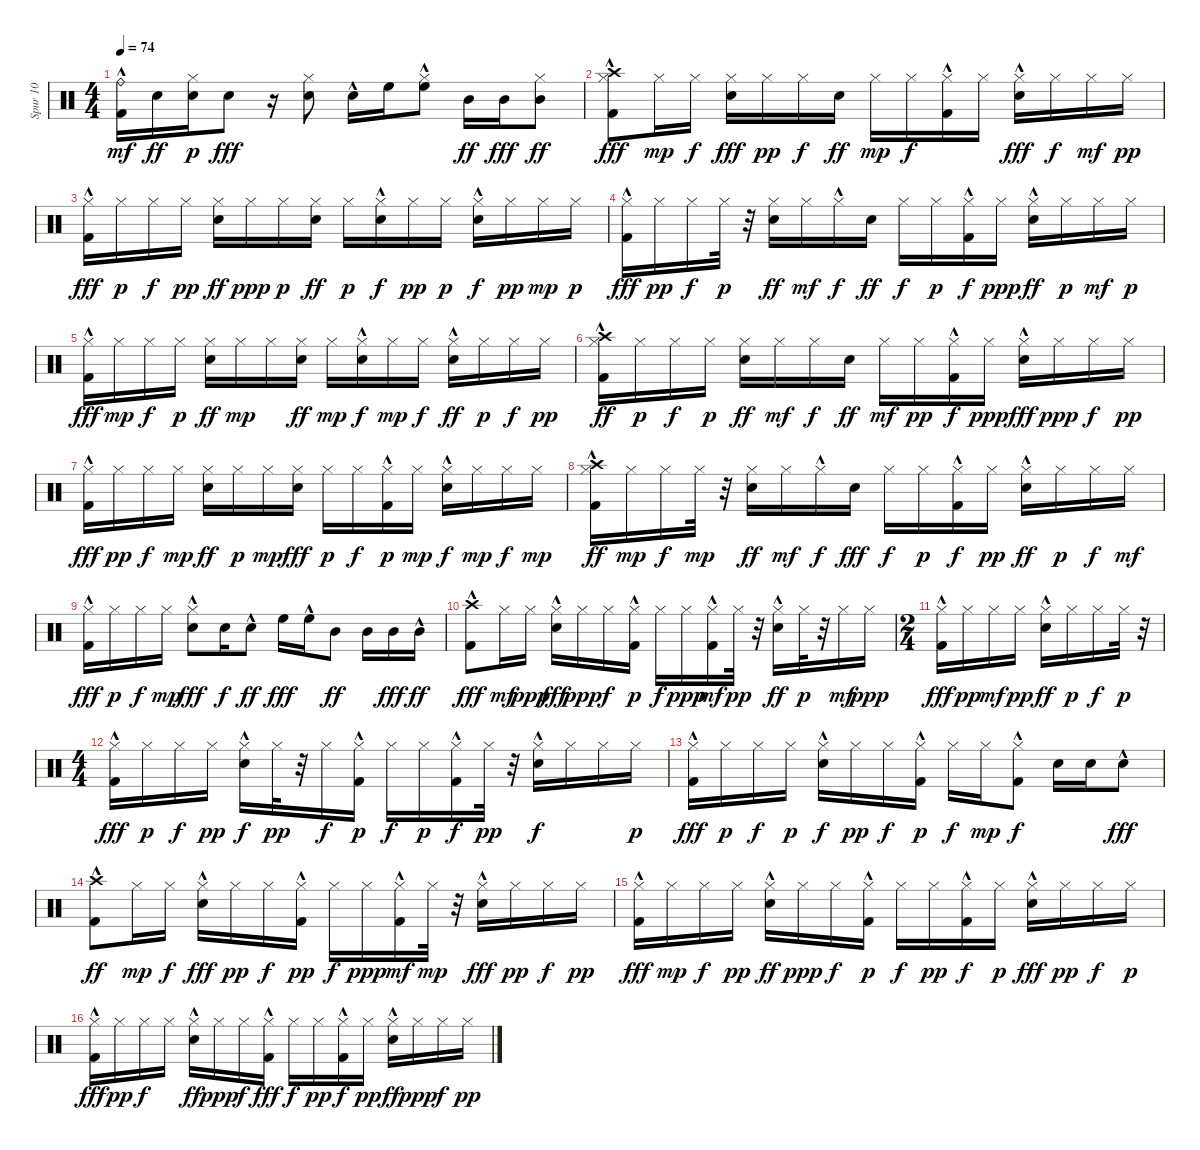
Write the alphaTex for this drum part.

\track ("Spur 10" "Spur 10") {instrument percussion}
\staff {score}
\articulation defaults
\ts (4 4)
\tempo 74
\clef neutral
\ks c
("Kick (hit) 2"{hac} "Ride (bell)").16{dy mf} "Snare (hit) 2".16{dy ff} ("Snare (hit) 2" "Hi-Hat (closed)").16{dy p} "Snare (hit) 2".8{dy fff} r.16 ("Hi-Hat (closed)" "Snare (hit) 2").8 "Snare (hit) 2"{hac}.16 "High Floor Tom (hit)".16 ("Hi-Hat (closed)" "High Floor Tom (hit)"{hac}).8 "Mid Tom (hit)".16{dy ff} "Mid Tom (hit)".16{dy fff} ("Hi-Hat (closed)" "Mid Tom (hit)").8{dy ff} |
("Kick (hit) 2"{hac} "Hi-Hat (closed)" "Crash high (hit)").8{dy fff} "Hi-Hat (closed)".16{dy mp} "Hi-Hat (closed)".16{dy f} ("Hi-Hat (closed)" "Snare (hit) 2").16{dy fff} "Hi-Hat (closed)".16{dy pp} "Hi-Hat (closed)".16{dy f} "Snare (hit) 2".16{dy ff} "Hi-Hat (closed)".16{dy mp} "Hi-Hat (closed)".16{dy f} ("Hi-Hat (closed)" "Kick (hit) 2"{hac}).16 "Hi-Hat (closed)".16 ("Hi-Hat (closed)" "Snare (hit) 2"{hac}).16{dy fff} "Hi-Hat (closed)".16{dy f} "Hi-Hat (closed)".16{dy mf} "Hi-Hat (closed)".16{dy pp} |
("Kick (hit) 2"{hac} "Hi-Hat (closed)").16{dy fff} "Hi-Hat (closed)".16{dy p} "Hi-Hat (closed)".16{dy f} "Hi-Hat (closed)".16{dy pp} ("Hi-Hat (closed)" "Snare (hit) 2").16{dy ff} "Hi-Hat (closed)".16{dy ppp} "Hi-Hat (closed)".16{dy p} ("Hi-Hat (closed)" "Snare (hit) 2").16{dy ff} "Hi-Hat (closed)".16{dy p} ("Hi-Hat (closed)" "Snare (hit) 2"{hac}).16{dy f} "Hi-Hat (closed)".16{dy pp} "Hi-Hat (closed)".16{dy p} ("Hi-Hat (closed)" "Snare (hit) 2"{hac}).16{dy f} "Hi-Hat (closed)".16{dy pp} "Hi-Hat (closed)".16{dy mp} "Hi-Hat (closed)".16{dy p} |
("Hi-Hat (closed)" "Kick (hit) 2"{hac}).16{dy fff} "Hi-Hat (closed)".16{dy pp} "Hi-Hat (closed)".16{dy f} "Hi-Hat (closed)".32{dy p} r.32 ("Hi-Hat (closed)" "Snare (hit) 2").16{dy ff} "Hi-Hat (closed)".16{dy mf} "Hi-Hat (closed)"{hac}.16{dy f} "Snare (hit) 2".16{dy ff} "Hi-Hat (closed)".16{dy f} "Hi-Hat (closed)".16{dy p} ("Hi-Hat (closed)" "Kick (hit) 2"{hac}).16{dy f} "Hi-Hat (closed)".16{dy ppp} ("Hi-Hat (closed)" "Snare (hit) 2"{hac}).16{dy ff} "Hi-Hat (closed)".16{dy p} "Hi-Hat (closed)".16{dy mf} "Hi-Hat (closed)".16{dy p} |
("Hi-Hat (closed)" "Kick (hit) 2"{hac}).16{dy fff} "Hi-Hat (closed)".16{dy mp} "Hi-Hat (closed)".16{dy f} "Hi-Hat (closed)".16{dy p} ("Hi-Hat (closed)" "Snare (hit) 2").16{dy ff} "Hi-Hat (closed)".16{dy mp} "Hi-Hat (closed)".16 ("Hi-Hat (closed)" "Snare (hit) 2").16{dy ff} "Hi-Hat (closed)".16{dy mp} ("Hi-Hat (closed)" "Snare (hit) 2"{hac}).16{dy f} "Hi-Hat (closed)".16{dy mp} "Hi-Hat (closed)".16{dy f} ("Hi-Hat (closed)" "Snare (hit) 2"{hac}).16{dy ff} "Hi-Hat (closed)".16{dy p} "Hi-Hat (closed)".16{dy f} "Hi-Hat (closed)".16{dy pp} |
("Kick (hit) 2"{hac} "Hi-Hat (closed)" "Crash high (hit)").16{dy ff} "Hi-Hat (closed)".16{dy p} "Hi-Hat (closed)".16{dy f} "Hi-Hat (closed)".16{dy p} ("Hi-Hat (closed)" "Snare (hit) 2").16{dy ff} "Hi-Hat (closed)".16{dy mf} "Hi-Hat (closed)".16{dy f} "Snare (hit) 2".16{dy ff} "Hi-Hat (closed)".16{dy mf} "Hi-Hat (closed)".16{dy pp} ("Hi-Hat (closed)" "Kick (hit) 2"{hac}).16{dy f} "Hi-Hat (closed)".16{dy ppp} ("Hi-Hat (closed)" "Snare (hit) 2"{hac}).16{dy fff} "Hi-Hat (closed)".16{dy ppp} "Hi-Hat (closed)".16{dy f} "Hi-Hat (closed)".16{dy pp} |
("Hi-Hat (closed)" "Kick (hit) 2"{hac}).16{dy fff} "Hi-Hat (closed)".16{dy pp} "Hi-Hat (closed)".16{dy f} "Hi-Hat (closed)".16{dy mp} ("Hi-Hat (closed)" "Snare (hit) 2").16{dy ff} "Hi-Hat (closed)".16{dy p} "Hi-Hat (closed)".16{dy mp} ("Hi-Hat (closed)" "Snare (hit) 2").16{dy fff} "Hi-Hat (closed)".16{dy p} "Hi-Hat (closed)".16{dy f} ("Kick (hit) 2"{hac} "Hi-Hat (closed)").16{dy p} "Hi-Hat (closed)".16{dy mp} ("Hi-Hat (closed)" "Snare (hit) 2"{hac}).16{dy f} "Hi-Hat (closed)".16{dy mp} "Hi-Hat (closed)".16{dy f} "Hi-Hat (closed)".16{dy mp} |
("Hi-Hat (closed)" "Kick (hit) 2"{hac} "Crash high (hit)").16{dy ff} "Hi-Hat (closed)".16{dy mp} "Hi-Hat (closed)".16{dy f} "Hi-Hat (closed)".32{dy mp} r.32 ("Hi-Hat (closed)" "Snare (hit) 2").16{dy ff} "Hi-Hat (closed)".16{dy mf} "Hi-Hat (closed)"{hac}.16{dy f} "Snare (hit) 2".16{dy fff} "Hi-Hat (closed)".16{dy f} "Hi-Hat (closed)".16{dy p} ("Hi-Hat (closed)" "Kick (hit) 2"{hac}).16{dy f} "Hi-Hat (closed)".16{dy pp} ("Hi-Hat (closed)" "Snare (hit) 2"{hac}).16{dy ff} "Hi-Hat (closed)".16{dy p} "Hi-Hat (closed)".16{dy f} "Hi-Hat (closed)".16{dy mf} |
("Hi-Hat (closed)" "Kick (hit) 2"{hac}).16{dy fff} "Hi-Hat (closed)".16{dy p} "Hi-Hat (closed)".16{dy f} "Hi-Hat (closed)".16{dy mp} ("Hi-Hat (closed)"{hac} "Snare (hit) 2").8{dy fff} "Snare (hit) 2".16{dy f} "Snare (hit) 2"{hac}.8{dy ff} "High Floor Tom (hit)".16{dy fff} "High Floor Tom (hit)"{hac}.16 "Mid Tom (hit)".8{dy ff} "Mid Tom (hit)".16 "Mid Tom (hit)".16{dy fff} "Mid Tom (hit)"{hac}.16{dy ff} |
("Kick (hit) 2"{hac} "Crash high (hit)").8{dy fff} "Hi-Hat (closed)".16{dy mf} "Hi-Hat (closed)".16{dy ppp} ("Hi-Hat (closed)" "Snare (hit) 2"{hac}).16{dy fff} "Hi-Hat (closed)".16{dy ppp} "Hi-Hat (closed)".16{dy f} ("Kick (hit) 2"{hac} "Hi-Hat (closed)").16{dy p} "Hi-Hat (closed)".16{dy f} "Hi-Hat (closed)".16{dy ppp} ("Hi-Hat (closed)" "Kick (hit) 2"{hac}).16{dy mf} "Hi-Hat (closed)".32{dy pp} r.32 ("Hi-Hat (closed)" "Snare (hit) 2"{hac}).16{dy ff} "Hi-Hat (closed)".32{dy p} r.32 "Hi-Hat (closed)".16{dy mf} "Hi-Hat (closed)".16{dy ppp} |
\ts (2 4)
("Hi-Hat (closed)" "Kick (hit) 2"{hac}).16{dy fff} "Hi-Hat (closed)".16{dy pp} "Hi-Hat (closed)".16{dy mf} "Hi-Hat (closed)".16{dy pp} ("Hi-Hat (closed)" "Snare (hit) 2"{hac}).16{dy ff} "Hi-Hat (closed)".16{dy p} "Hi-Hat (closed)".16{dy f} "Hi-Hat (closed)".32{dy p} r.32 |
\ts (4 4)
("Kick (hit) 2"{hac} "Hi-Hat (closed)").16{dy fff} "Hi-Hat (closed)".16{dy p} "Hi-Hat (closed)".16{dy f} "Hi-Hat (closed)".16{dy pp} ("Hi-Hat (closed)" "Snare (hit) 2"{hac}).16{dy f} "Hi-Hat (closed)".32{dy pp} r.32 "Hi-Hat (closed)".16{dy f} ("Kick (hit) 2"{hac} "Hi-Hat (closed)").16{dy p} "Hi-Hat (closed)".16{dy f} "Hi-Hat (closed)".16{dy p} ("Hi-Hat (closed)" "Kick (hit) 2"{hac}).16{dy f} "Hi-Hat (closed)".32{dy pp} r.32 ("Hi-Hat (closed)" "Snare (hit) 2"{hac}).16{dy f} "Hi-Hat (closed)".16 "Hi-Hat (closed)".16 "Hi-Hat (closed)".16{dy p} |
("Kick (hit) 2"{hac} "Hi-Hat (closed)").16{dy fff} "Hi-Hat (closed)".16{dy p} "Hi-Hat (closed)".16{dy f} "Hi-Hat (closed)".16{dy p} ("Hi-Hat (closed)" "Snare (hit) 2"{hac}).16{dy f} "Hi-Hat (closed)".16{dy pp} "Hi-Hat (closed)".16{dy f} ("Kick (hit) 2"{hac} "Hi-Hat (closed)").16{dy p} "Hi-Hat (closed)".16{dy f} "Hi-Hat (closed)".16{dy mp} ("Hi-Hat (closed)"{hac} "Kick (hit) 2"{hac}).8{dy f} "Snare (hit) 2".16 "Snare (hit) 2".16 "Snare (hit) 2"{hac}.8{dy fff} |
("Kick (hit) 2"{hac} "Crash high (hit)").8{dy ff} "Hi-Hat (closed)".16{dy mp} "Hi-Hat (closed)".16{dy f} ("Hi-Hat (closed)" "Snare (hit) 2"{hac}).16{dy fff} "Hi-Hat (closed)".16{dy pp} "Hi-Hat (closed)".16{dy f} ("Kick (hit) 2"{hac} "Hi-Hat (closed)").16{dy pp} "Hi-Hat (closed)".16{dy f} "Hi-Hat (closed)".16{dy ppp} ("Hi-Hat (closed)" "Kick (hit) 2"{hac}).16{dy mf} "Hi-Hat (closed)".32{dy mp} r.32 ("Hi-Hat (closed)" "Snare (hit) 2"{hac}).16{dy fff} "Hi-Hat (closed)".16{dy pp} "Hi-Hat (closed)".16{dy f} "Hi-Hat (closed)".16{dy pp} |
("Kick (hit) 2"{hac} "Hi-Hat (closed)").16{dy fff} "Hi-Hat (closed)".16{dy mp} "Hi-Hat (closed)".16{dy f} "Hi-Hat (closed)".16{dy pp} ("Hi-Hat (closed)" "Snare (hit) 2"{hac}).16{dy ff} "Hi-Hat (closed)".16{dy ppp} "Hi-Hat (closed)".16{dy f} ("Kick (hit) 2"{hac} "Hi-Hat (closed)").16{dy p} "Hi-Hat (closed)".16{dy f} "Hi-Hat (closed)".16{dy pp} ("Kick (hit) 2"{hac} "Hi-Hat (closed)").16{dy f} "Hi-Hat (closed)".16{dy p} ("Hi-Hat (closed)" "Snare (hit) 2"{hac}).16{dy fff} "Hi-Hat (closed)".16{dy pp} "Hi-Hat (closed)".16{dy f} "Hi-Hat (closed)".16{dy p} |
("Kick (hit) 2"{hac} "Hi-Hat (closed)").16{dy fff} "Hi-Hat (closed)".16{dy pp} "Hi-Hat (closed)".16{dy f} "Hi-Hat (closed)".16 ("Hi-Hat (closed)" "Snare (hit) 2"{hac}).16{dy ff} "Hi-Hat (closed)".16{dy ppp} "Hi-Hat (closed)".16{dy f} ("Hi-Hat (closed)" "Kick (hit) 2"{hac}).16{dy fff} "Hi-Hat (closed)".16{dy f} "Hi-Hat (closed)".16{dy pp} ("Hi-Hat (closed)" "Kick (hit) 2"{hac}).16{dy f} "Hi-Hat (closed)".16{dy pp} ("Hi-Hat (closed)" "Snare (hit) 2"{hac}).16{dy ff} "Hi-Hat (closed)".16{dy ppp} "Hi-Hat (closed)".16{dy f} "Hi-Hat (closed)".16{dy pp}
